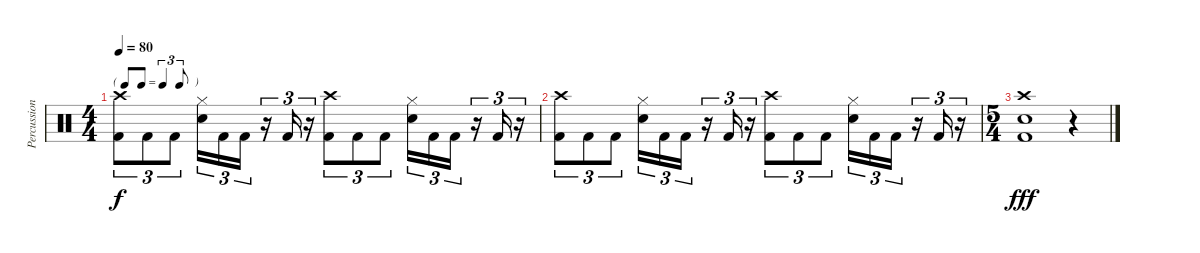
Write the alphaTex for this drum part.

\track ("Percussion" "Percussion") {instrument percussion}
\staff {score}
\articulation defaults
\ts (4 4)
\tf triplet8th
\tempo 80
\clef neutral
\ks c
("Crash high (hit)" "Kick (hit) 2").8{tu (3 2) dy f} "Kick (hit) 2".8{tu (3 2)} "Kick (hit) 2".8{tu (3 2)} ("Hi-Hat (closed)" "Snare (hit) 2").16{tu (3 2)} "Kick (hit) 2".16{tu (3 2)} "Kick (hit) 2".16{tu (3 2)} r.16{tu (3 2)} "Kick (hit) 2".16{tu (3 2)} r.16{tu (3 2)} ("Crash high (hit)" "Kick (hit) 2").8{tu (3 2)} "Kick (hit) 2".8{tu (3 2)} "Kick (hit) 2".8{tu (3 2)} ("Hi-Hat (closed)" "Snare (hit) 2").16{tu (3 2)} "Kick (hit) 2".16{tu (3 2)} "Kick (hit) 2".16{tu (3 2)} r.16{tu (3 2)} "Kick (hit) 2".16{tu (3 2)} r.16{tu (3 2)} |
("Crash high (hit)" "Kick (hit) 2").8{tu (3 2)} "Kick (hit) 2".8{tu (3 2)} "Kick (hit) 2".8{tu (3 2)} ("Hi-Hat (closed)" "Snare (hit) 2").16{tu (3 2)} "Kick (hit) 2".16{tu (3 2)} "Kick (hit) 2".16{tu (3 2)} r.16{tu (3 2)} "Kick (hit) 2".16{tu (3 2)} r.16{tu (3 2)} ("Crash high (hit)" "Kick (hit) 2").8{tu (3 2)} "Kick (hit) 2".8{tu (3 2)} "Kick (hit) 2".8{tu (3 2)} ("Hi-Hat (closed)" "Snare (hit) 2").16{tu (3 2)} "Kick (hit) 2".16{tu (3 2)} "Kick (hit) 2".16{tu (3 2)} r.16{tu (3 2)} "Kick (hit) 2".16{tu (3 2)} r.16{tu (3 2)} |
\ts (5 4)
("Crash high (hit)" "Kick (hit) 2" "Electric Snare (hit)").1{dy fff} r.4
